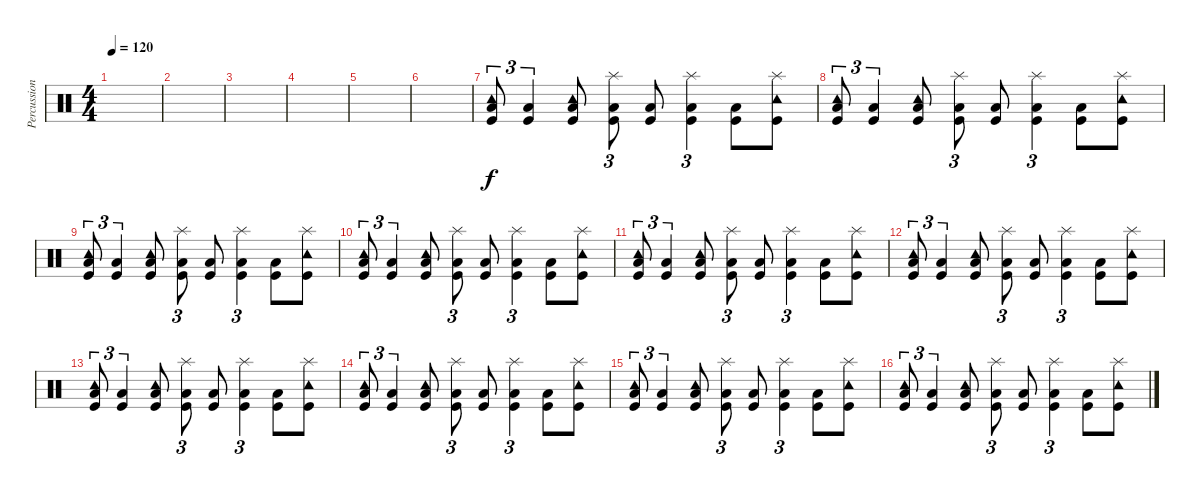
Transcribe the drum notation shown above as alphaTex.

\track ("Percussion" "Percussion") {instrument percussion}
\staff {score}
\articulation defaults
\ts (4 4)
\tempo 120
\clef neutral
\ks c
|
|
|
|
|
|
("Tambourine (hit)" "Low Tom (hit)" "Kick (hit)").8{tu (3 2)} ("Low Tom (hit)" "Kick (hit)").4{tu (3 2)} ("Low Tom (hit)" "Tambourine (hit)" "Kick (hit)").8 ("Low Tom (hit)" "Splash (hit)" "Kick (hit)").8{tu (3 2)} ("Low Tom (hit)" "Kick (hit)").8 ("Splash (hit)" "Low Tom (hit)" "Kick (hit)").4{tu (3 2)} ("Low Tom (hit)" "Kick (hit)").8 ("Splash (hit)" "Tambourine (hit)" "Kick (hit)").8 |
("Tambourine (hit)" "Low Tom (hit)" "Kick (hit)").8{tu (3 2)} ("Low Tom (hit)" "Kick (hit)").4{tu (3 2)} ("Low Tom (hit)" "Tambourine (hit)" "Kick (hit)").8 ("Low Tom (hit)" "Splash (hit)" "Kick (hit)").8{tu (3 2)} ("Low Tom (hit)" "Kick (hit)").8 ("Splash (hit)" "Low Tom (hit)" "Kick (hit)").4{tu (3 2)} ("Low Tom (hit)" "Kick (hit)").8 ("Splash (hit)" "Tambourine (hit)" "Kick (hit)").8 |
("Tambourine (hit)" "Low Tom (hit)" "Kick (hit)").8{tu (3 2)} ("Low Tom (hit)" "Kick (hit)").4{tu (3 2)} ("Low Tom (hit)" "Tambourine (hit)" "Kick (hit)").8 ("Low Tom (hit)" "Splash (hit)" "Kick (hit)").8{tu (3 2)} ("Low Tom (hit)" "Kick (hit)").8 ("Splash (hit)" "Low Tom (hit)" "Kick (hit)").4{tu (3 2)} ("Low Tom (hit)" "Kick (hit)").8 ("Splash (hit)" "Tambourine (hit)" "Kick (hit)").8 |
("Tambourine (hit)" "Low Tom (hit)" "Kick (hit)").8{tu (3 2)} ("Low Tom (hit)" "Kick (hit)").4{tu (3 2)} ("Low Tom (hit)" "Tambourine (hit)" "Kick (hit)").8 ("Low Tom (hit)" "Splash (hit)" "Kick (hit)").8{tu (3 2)} ("Low Tom (hit)" "Kick (hit)").8 ("Splash (hit)" "Low Tom (hit)" "Kick (hit)").4{tu (3 2)} ("Low Tom (hit)" "Kick (hit)").8 ("Splash (hit)" "Tambourine (hit)" "Kick (hit)").8 |
("Tambourine (hit)" "Low Tom (hit)" "Kick (hit)").8{tu (3 2)} ("Low Tom (hit)" "Kick (hit)").4{tu (3 2)} ("Low Tom (hit)" "Tambourine (hit)" "Kick (hit)").8 ("Low Tom (hit)" "Splash (hit)" "Kick (hit)").8{tu (3 2)} ("Low Tom (hit)" "Kick (hit)").8 ("Splash (hit)" "Low Tom (hit)" "Kick (hit)").4{tu (3 2)} ("Low Tom (hit)" "Kick (hit)").8 ("Splash (hit)" "Tambourine (hit)" "Kick (hit)").8 |
("Tambourine (hit)" "Low Tom (hit)" "Kick (hit)").8{tu (3 2)} ("Low Tom (hit)" "Kick (hit)").4{tu (3 2)} ("Low Tom (hit)" "Tambourine (hit)" "Kick (hit)").8 ("Low Tom (hit)" "Splash (hit)" "Kick (hit)").8{tu (3 2)} ("Low Tom (hit)" "Kick (hit)").8 ("Splash (hit)" "Low Tom (hit)" "Kick (hit)").4{tu (3 2)} ("Low Tom (hit)" "Kick (hit)").8 ("Splash (hit)" "Tambourine (hit)" "Kick (hit)").8 |
("Tambourine (hit)" "Low Tom (hit)" "Kick (hit)").8{tu (3 2)} ("Low Tom (hit)" "Kick (hit)").4{tu (3 2)} ("Low Tom (hit)" "Tambourine (hit)" "Kick (hit)").8 ("Low Tom (hit)" "Splash (hit)" "Kick (hit)").8{tu (3 2)} ("Low Tom (hit)" "Kick (hit)").8 ("Splash (hit)" "Low Tom (hit)" "Kick (hit)").4{tu (3 2)} ("Low Tom (hit)" "Kick (hit)").8 ("Splash (hit)" "Tambourine (hit)" "Kick (hit)").8 |
("Tambourine (hit)" "Low Tom (hit)" "Kick (hit)").8{tu (3 2)} ("Low Tom (hit)" "Kick (hit)").4{tu (3 2)} ("Low Tom (hit)" "Tambourine (hit)" "Kick (hit)").8 ("Low Tom (hit)" "Splash (hit)" "Kick (hit)").8{tu (3 2)} ("Low Tom (hit)" "Kick (hit)").8 ("Splash (hit)" "Low Tom (hit)" "Kick (hit)").4{tu (3 2)} ("Low Tom (hit)" "Kick (hit)").8 ("Splash (hit)" "Tambourine (hit)" "Kick (hit)").8 |
("Tambourine (hit)" "Low Tom (hit)" "Kick (hit)").8{tu (3 2)} ("Low Tom (hit)" "Kick (hit)").4{tu (3 2)} ("Low Tom (hit)" "Tambourine (hit)" "Kick (hit)").8 ("Low Tom (hit)" "Splash (hit)" "Kick (hit)").8{tu (3 2)} ("Low Tom (hit)" "Kick (hit)").8 ("Splash (hit)" "Low Tom (hit)" "Kick (hit)").4{tu (3 2)} ("Low Tom (hit)" "Kick (hit)").8 ("Splash (hit)" "Tambourine (hit)" "Kick (hit)").8 |
("Tambourine (hit)" "Low Tom (hit)" "Kick (hit)").8{tu (3 2)} ("Low Tom (hit)" "Kick (hit)").4{tu (3 2)} ("Low Tom (hit)" "Tambourine (hit)" "Kick (hit)").8 ("Low Tom (hit)" "Splash (hit)" "Kick (hit)").8{tu (3 2)} ("Low Tom (hit)" "Kick (hit)").8 ("Splash (hit)" "Low Tom (hit)" "Kick (hit)").4{tu (3 2)} ("Low Tom (hit)" "Kick (hit)").8 ("Splash (hit)" "Tambourine (hit)" "Kick (hit)").8
